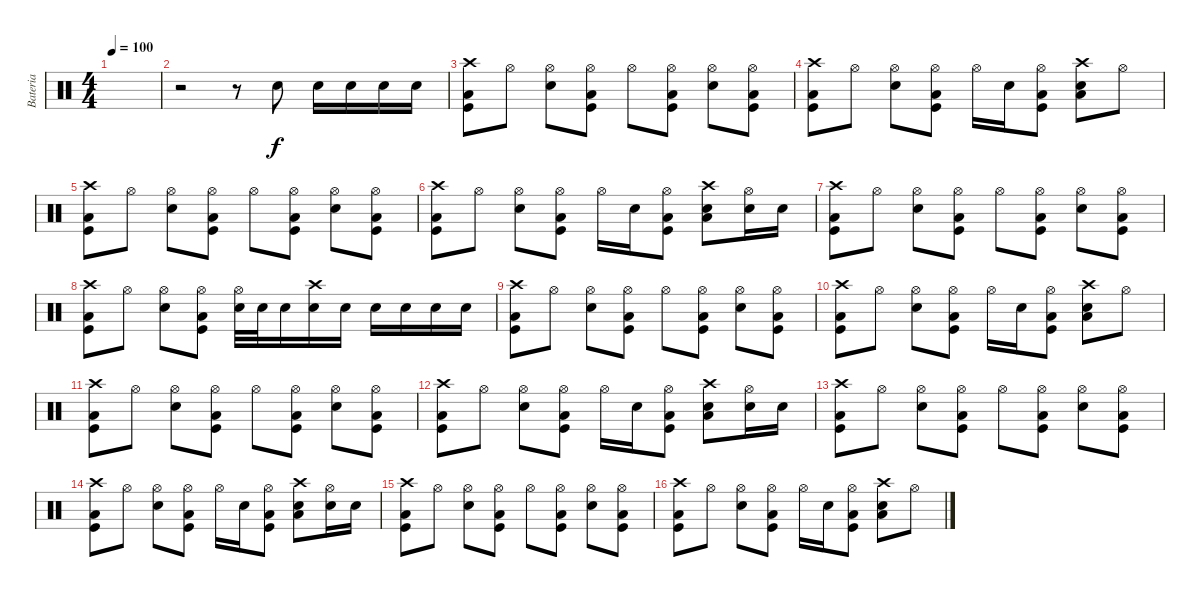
\track ("Bateria" "Bateria") {instrument percussion}
\staff {score}
\articulation defaults
\ts (4 4)
\tempo 100
\clef neutral
\ks c
|
r.2 r.8 "Snare (hit) 2".8 "Snare (hit) 2".16 "Snare (hit) 2".16 "Snare (hit) 2".16 "Snare (hit) 2".16 |
("Crash high (hit)" "Kick (hit)" "Low Tom (hit)").8 "Hi-Hat (open)".8 ("Hi-Hat (open)" "Snare (hit) 2").8 ("Hi-Hat (open)" "Kick (hit)" "Low Tom (hit)").8 "Hi-Hat (open)".8 ("Hi-Hat (open)" "Kick (hit)" "Low Tom (hit)").8 ("Hi-Hat (open)" "Snare (hit) 2").8 ("Hi-Hat (open)" "Kick (hit)" "Low Tom (hit)").8 |
("Crash high (hit)" "Kick (hit)" "Low Tom (hit)").8 "Hi-Hat (open)".8 ("Hi-Hat (open)" "Snare (hit) 2").8 ("Hi-Hat (open)" "Kick (hit)" "Low Tom (hit)").8 "Hi-Hat (open)".16 "Snare (hit) 2".16 ("Hi-Hat (open)" "Kick (hit)" "Low Tom (hit)").8 ("Crash high (hit)" "Snare (hit) 2" "Low Tom (hit)").8 "Hi-Hat (open)".8 |
("Crash high (hit)" "Kick (hit)" "Low Tom (hit)").8 "Hi-Hat (open)".8 ("Hi-Hat (open)" "Snare (hit) 2").8 ("Hi-Hat (open)" "Kick (hit)" "Low Tom (hit)").8 "Hi-Hat (open)".8 ("Hi-Hat (open)" "Kick (hit)" "Low Tom (hit)").8 ("Hi-Hat (open)" "Snare (hit) 2").8 ("Hi-Hat (open)" "Kick (hit)" "Low Tom (hit)").8 |
("Crash high (hit)" "Kick (hit)" "Low Tom (hit)").8 "Hi-Hat (open)".8 ("Hi-Hat (open)" "Snare (hit) 2").8 ("Hi-Hat (open)" "Kick (hit)" "Low Tom (hit)").8 "Hi-Hat (open)".16 "Snare (hit) 2".16 ("Hi-Hat (open)" "Kick (hit)" "Low Tom (hit)").8 ("Crash high (hit)" "Snare (hit) 2" "Low Tom (hit)").8 ("Hi-Hat (open)" "Snare (hit) 2").16 "Snare (hit) 2".16 |
("Crash high (hit)" "Kick (hit)" "Low Tom (hit)").8 "Hi-Hat (open)".8 ("Hi-Hat (open)" "Snare (hit) 2").8 ("Hi-Hat (open)" "Kick (hit)" "Low Tom (hit)").8 "Hi-Hat (open)".8 ("Hi-Hat (open)" "Kick (hit)" "Low Tom (hit)").8 ("Hi-Hat (open)" "Snare (hit) 2").8 ("Hi-Hat (open)" "Kick (hit)" "Low Tom (hit)").8 |
("Crash high (hit)" "Kick (hit)" "Low Tom (hit)").8 "Hi-Hat (open)".8 ("Hi-Hat (open)" "Snare (hit) 2").8 ("Hi-Hat (open)" "Kick (hit)" "Low Tom (hit)").8 ("Hi-Hat (open)" "Snare (hit) 2").32 "Snare (hit) 2".32 "Snare (hit) 2".16 ("Crash high (hit)" "Snare (hit) 2").16 "Snare (hit) 2".16 "Snare (hit) 2".16 "Snare (hit) 2".16 "Snare (hit) 2".16 "Snare (hit) 2".16 |
("Crash high (hit)" "Kick (hit)" "Low Tom (hit)").8 "Hi-Hat (open)".8 ("Hi-Hat (open)" "Snare (hit) 2").8 ("Hi-Hat (open)" "Kick (hit)" "Low Tom (hit)").8 "Hi-Hat (open)".8 ("Hi-Hat (open)" "Kick (hit)" "Low Tom (hit)").8 ("Hi-Hat (open)" "Snare (hit) 2").8 ("Hi-Hat (open)" "Kick (hit)" "Low Tom (hit)").8 |
("Crash high (hit)" "Kick (hit)" "Low Tom (hit)").8 "Hi-Hat (open)".8 ("Hi-Hat (open)" "Snare (hit) 2").8 ("Hi-Hat (open)" "Kick (hit)" "Low Tom (hit)").8 "Hi-Hat (open)".16 "Snare (hit) 2".16 ("Hi-Hat (open)" "Kick (hit)" "Low Tom (hit)").8 ("Crash high (hit)" "Snare (hit) 2" "Low Tom (hit)").8 "Hi-Hat (open)".8 |
("Crash high (hit)" "Kick (hit)" "Low Tom (hit)").8 "Hi-Hat (open)".8 ("Hi-Hat (open)" "Snare (hit) 2").8 ("Hi-Hat (open)" "Kick (hit)" "Low Tom (hit)").8 "Hi-Hat (open)".8 ("Hi-Hat (open)" "Kick (hit)" "Low Tom (hit)").8 ("Hi-Hat (open)" "Snare (hit) 2").8 ("Hi-Hat (open)" "Kick (hit)" "Low Tom (hit)").8 |
("Crash high (hit)" "Kick (hit)" "Low Tom (hit)").8 "Hi-Hat (open)".8 ("Hi-Hat (open)" "Snare (hit) 2").8 ("Hi-Hat (open)" "Kick (hit)" "Low Tom (hit)").8 "Hi-Hat (open)".16 "Snare (hit) 2".16 ("Hi-Hat (open)" "Kick (hit)" "Low Tom (hit)").8 ("Crash high (hit)" "Snare (hit) 2" "Low Tom (hit)").8 ("Hi-Hat (open)" "Snare (hit) 2").16 "Snare (hit) 2".16 |
("Crash high (hit)" "Kick (hit)" "Low Tom (hit)").8 "Hi-Hat (open)".8 ("Hi-Hat (open)" "Snare (hit) 2").8 ("Hi-Hat (open)" "Kick (hit)" "Low Tom (hit)").8 "Hi-Hat (open)".8 ("Hi-Hat (open)" "Kick (hit)" "Low Tom (hit)").8 ("Hi-Hat (open)" "Snare (hit) 2").8 ("Hi-Hat (open)" "Kick (hit)" "Low Tom (hit)").8 |
("Crash high (hit)" "Kick (hit)" "Low Tom (hit)").8 "Hi-Hat (open)".8 ("Hi-Hat (open)" "Snare (hit) 2").8 ("Hi-Hat (open)" "Kick (hit)" "Low Tom (hit)").8 "Hi-Hat (open)".16 "Snare (hit) 2".16 ("Hi-Hat (open)" "Kick (hit)" "Low Tom (hit)").8 ("Crash high (hit)" "Snare (hit) 2" "Low Tom (hit)").8 ("Hi-Hat (open)" "Snare (hit) 2").16 "Snare (hit) 2".16 |
("Crash high (hit)" "Kick (hit)" "Low Tom (hit)").8 "Hi-Hat (open)".8 ("Hi-Hat (open)" "Snare (hit) 2").8 ("Hi-Hat (open)" "Kick (hit)" "Low Tom (hit)").8 "Hi-Hat (open)".8 ("Hi-Hat (open)" "Kick (hit)" "Low Tom (hit)").8 ("Hi-Hat (open)" "Snare (hit) 2").8 ("Hi-Hat (open)" "Kick (hit)" "Low Tom (hit)").8 |
("Crash high (hit)" "Kick (hit)" "Low Tom (hit)").8 "Hi-Hat (open)".8 ("Hi-Hat (open)" "Snare (hit) 2").8 ("Hi-Hat (open)" "Kick (hit)" "Low Tom (hit)").8 "Hi-Hat (open)".16 "Snare (hit) 2".16 ("Hi-Hat (open)" "Kick (hit)" "Low Tom (hit)").8 ("Crash high (hit)" "Snare (hit) 2" "Low Tom (hit)").8 "Hi-Hat (open)".8
